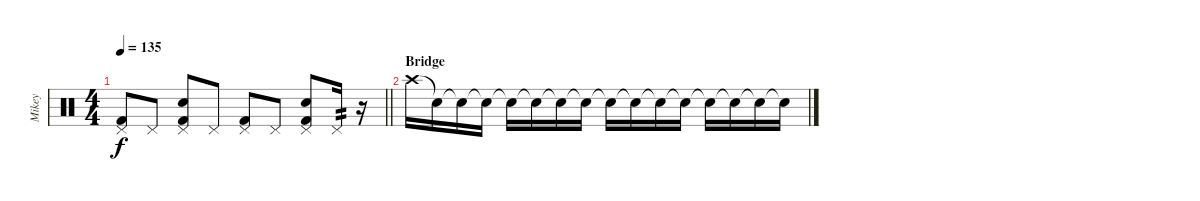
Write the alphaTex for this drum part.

\track ("Mikey" "Mikey") {instrument percussion}
\staff {score}
\articulation defaults
\ts (4 4)
\tempo 135
\clef neutral
\barLineRight lightlight
\ks c
("Pedal Hi-Hat (hit)" "Kick (hit) 2").8{dy f} "Pedal Hi-Hat (hit)".8 ("Pedal Hi-Hat (hit)" "Snare (hit) 2" "Kick (hit) 2").8 "Pedal Hi-Hat (hit)".8 ("Pedal Hi-Hat (hit)" "Kick (hit) 2").8 "Pedal Hi-Hat (hit)".8 ("Pedal Hi-Hat (hit)" "Snare (hit) 2" "Kick (hit) 2").8 "Pedal Hi-Hat (hit)".16{tp 2} r.16{volume 0} |
\section ("" "Bridge")
"Crash high (hit)".16{volume 16} "Snare (hit)"{t}.16 "Snare (hit)"{t}.16 "Snare (hit)"{t}.16 "Snare (hit)"{t}.16 "Snare (hit)"{t}.16 "Snare (hit)"{t}.16 "Snare (hit)"{t}.16 "Snare (hit)"{t}.16 "Snare (hit)"{t}.16 "Snare (hit)"{t}.16 "Snare (hit)"{t}.16 "Snare (hit)"{t}.16 "Snare (hit)"{t}.16 "Snare (hit)"{t}.16 "Snare (hit)"{t}.16
